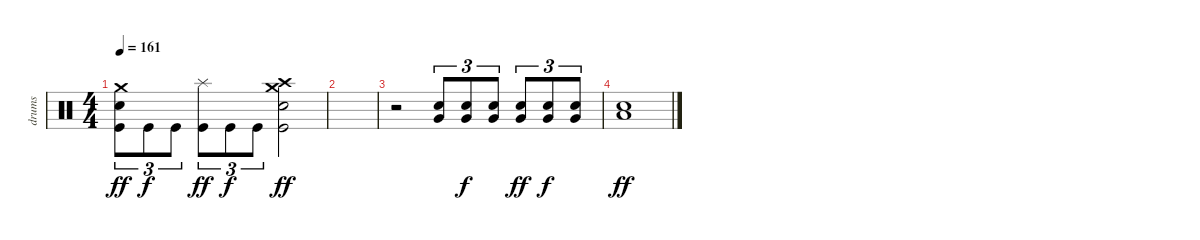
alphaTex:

\track ("drums" "drums") {instrument percussion}
\staff {score}
\articulation defaults
\ts (4 4)
\tempo 161
\clef neutral
\ks c
("Crash medium (hit)" "Electric Snare (hit)" "Kick (hit)").8{tu (3 2) dy ff} "Kick (hit)".8{tu (3 2) dy f} "Kick (hit)".8{tu (3 2)} ("Splash (hit)" "Kick (hit)").8{tu (3 2) dy ff} "Kick (hit)".8{tu (3 2) dy f} "Kick (hit)".8{tu (3 2)} ("Crash high (hit)" "Crash medium (hit)" "Electric Snare (hit)" "Kick (hit)").2{dy ff} |
|
r.2 ("Electric Snare (hit)" "Very Low Tom (hit)").8{tu (3 2)} ("Electric Snare (hit)" "Very Low Tom (hit)").8{tu (3 2) dy f} ("Electric Snare (hit)" "Very Low Tom (hit)").8{tu (3 2)} ("Electric Snare (hit)" "Very Low Tom (hit)").8{tu (3 2) dy ff} ("Electric Snare (hit)" "Very Low Tom (hit)").8{tu (3 2) dy f} ("Electric Snare (hit)" "Very Low Tom (hit)").8{tu (3 2)} |
("Electric Snare (hit)" "Low Floor Tom (hit)").1{dy ff}
